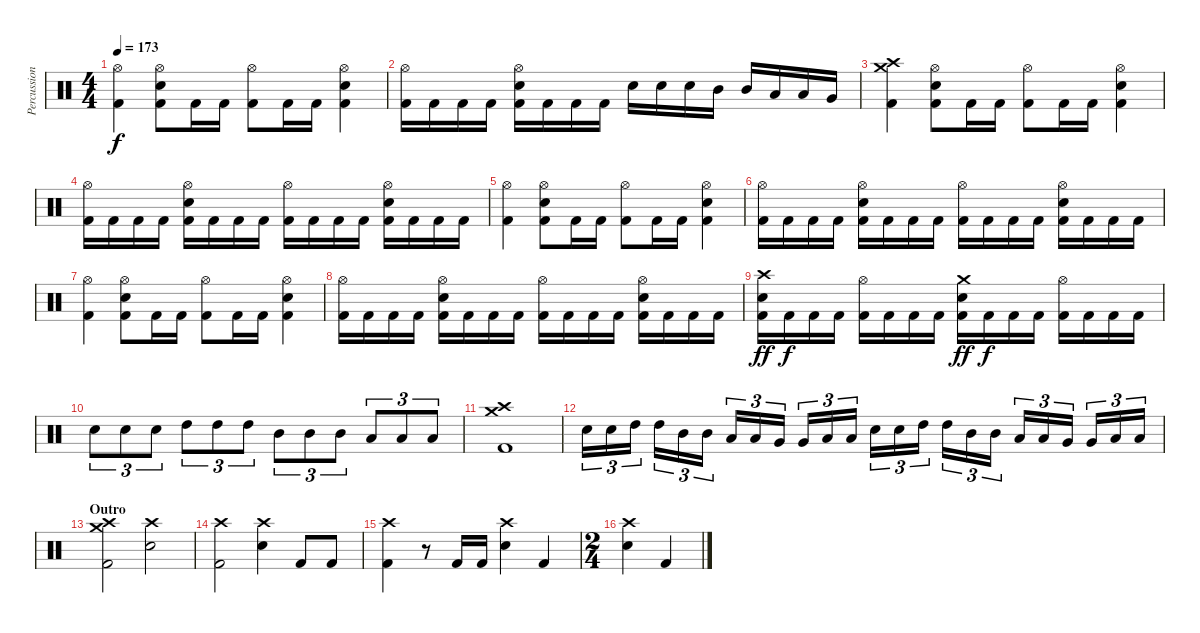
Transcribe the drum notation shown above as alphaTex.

\track ("Percussions" "Percussion") {instrument percussion}
\staff {score}
\articulation defaults
\ts (4 4)
\tempo 173
\clef neutral
\ks c
("Hi-Hat (open)" "Kick (hit) 2").4{dy f} ("Hi-Hat (open)" "Electric Snare (hit)" "Kick (hit) 2").8 "Kick (hit) 2".16 "Kick (hit) 2".16 ("Hi-Hat (open)" "Kick (hit) 2").8 "Kick (hit) 2".16 "Kick (hit) 2".16 ("Hi-Hat (open)" "Electric Snare (hit)" "Kick (hit) 2").4 |
("Hi-Hat (open)" "Kick (hit) 2").16 "Kick (hit) 2".16 "Kick (hit) 2".16 "Kick (hit) 2".16 ("Hi-Hat (open)" "Electric Snare (hit)" "Kick (hit) 2").16 "Kick (hit) 2".16 "Kick (hit) 2".16 "Kick (hit) 2".16 "Electric Snare (hit)".16 "Electric Snare (hit)".16 "Electric Snare (hit)".16 "Mid Tom (hit)".16 "Mid Tom (hit)".16 "Low Tom (hit)".16 "Low Tom (hit)".16 "Very Low Tom (hit)".16 |
("Crash high (hit)" "Crash medium (hit)" "Kick (hit) 2").4 ("Hi-Hat (open)" "Electric Snare (hit)" "Kick (hit) 2").8 "Kick (hit) 2".16 "Kick (hit) 2".16 ("Hi-Hat (open)" "Kick (hit) 2").8 "Kick (hit) 2".16 "Kick (hit) 2".16 ("Hi-Hat (open)" "Electric Snare (hit)" "Kick (hit) 2").4 |
("Hi-Hat (open)" "Kick (hit) 2").16 "Kick (hit) 2".16 "Kick (hit) 2".16 "Kick (hit) 2".16 ("Hi-Hat (open)" "Electric Snare (hit)" "Kick (hit) 2").16 "Kick (hit) 2".16 "Kick (hit) 2".16 "Kick (hit) 2".16 ("Hi-Hat (open)" "Kick (hit) 2").16 "Kick (hit) 2".16 "Kick (hit) 2".16 "Kick (hit) 2".16 ("Hi-Hat (open)" "Electric Snare (hit)" "Kick (hit) 2").16 "Kick (hit) 2".16 "Kick (hit) 2".16 "Kick (hit) 2".16 |
("Hi-Hat (open)" "Kick (hit) 2").4 ("Hi-Hat (open)" "Electric Snare (hit)" "Kick (hit) 2").8 "Kick (hit) 2".16 "Kick (hit) 2".16 ("Hi-Hat (open)" "Kick (hit) 2").8 "Kick (hit) 2".16 "Kick (hit) 2".16 ("Hi-Hat (open)" "Electric Snare (hit)" "Kick (hit) 2").4 |
("Hi-Hat (open)" "Kick (hit) 2").16 "Kick (hit) 2".16 "Kick (hit) 2".16 "Kick (hit) 2".16 ("Hi-Hat (open)" "Electric Snare (hit)" "Kick (hit) 2").16 "Kick (hit) 2".16 "Kick (hit) 2".16 "Kick (hit) 2".16 ("Hi-Hat (open)" "Kick (hit) 2").16 "Kick (hit) 2".16 "Kick (hit) 2".16 "Kick (hit) 2".16 ("Hi-Hat (open)" "Electric Snare (hit)" "Kick (hit) 2").16 "Kick (hit) 2".16 "Kick (hit) 2".16 "Kick (hit) 2".16 |
("Hi-Hat (open)" "Kick (hit) 2").4 ("Hi-Hat (open)" "Electric Snare (hit)" "Kick (hit) 2").8 "Kick (hit) 2".16 "Kick (hit) 2".16 ("Hi-Hat (open)" "Kick (hit) 2").8 "Kick (hit) 2".16 "Kick (hit) 2".16 ("Hi-Hat (open)" "Electric Snare (hit)" "Kick (hit) 2").4 |
("Hi-Hat (open)" "Kick (hit) 2").16 "Kick (hit) 2".16 "Kick (hit) 2".16 "Kick (hit) 2".16 ("Hi-Hat (open)" "Electric Snare (hit)" "Kick (hit) 2").16 "Kick (hit) 2".16 "Kick (hit) 2".16 "Kick (hit) 2".16 ("Hi-Hat (open)" "Kick (hit) 2").16 "Kick (hit) 2".16 "Kick (hit) 2".16 "Kick (hit) 2".16 ("Hi-Hat (open)" "Electric Snare (hit)" "Kick (hit) 2").16 "Kick (hit) 2".16 "Kick (hit) 2".16 "Kick (hit) 2".16 |
("Crash high (hit)" "Electric Snare (hit)" "Kick (hit) 2").16{dy ff} "Kick (hit) 2".16{dy f} "Kick (hit) 2".16 "Kick (hit) 2".16 ("Hi-Hat (open)" "Kick (hit) 2").16 "Kick (hit) 2".16 "Kick (hit) 2".16 "Kick (hit) 2".16 ("Crash medium (hit)" "Electric Snare (hit)" "Kick (hit) 2").16{dy ff} "Kick (hit) 2".16{dy f} "Kick (hit) 2".16 "Kick (hit) 2".16 ("Hi-Hat (open)" "Kick (hit) 2").16 "Kick (hit) 2".16 "Kick (hit) 2".16 "Kick (hit) 2".16 |
"Electric Snare (hit)".8{tu (3 2)} "Electric Snare (hit)".8{tu (3 2)} "Electric Snare (hit)".8{tu (3 2)} "High Tom (hit)".8{tu (3 2)} "High Tom (hit)".8{tu (3 2)} "High Tom (hit)".8{tu (3 2)} "Mid Tom (hit)".8{tu (3 2)} "Mid Tom (hit)".8{tu (3 2)} "Mid Tom (hit)".8{tu (3 2)} "Low Tom (hit)".8{tu (3 2)} "Low Tom (hit)".8{tu (3 2)} "Low Tom (hit)".8{tu (3 2)} |
("Crash high (hit)" "Crash medium (hit)" "Kick (hit) 2").1 |
"Electric Snare (hit)".16{tu (3 2)} "Electric Snare (hit)".16{tu (3 2)} "High Tom (hit)".16{tu (3 2)} "High Tom (hit)".16{tu (3 2)} "Mid Tom (hit)".16{tu (3 2)} "Mid Tom (hit)".16{tu (3 2)} "Low Tom (hit)".16{tu (3 2)} "Low Tom (hit)".16{tu (3 2)} "Very Low Tom (hit)".16{tu (3 2)} "Very Low Tom (hit)".16{tu (3 2)} "Low Floor Tom (hit)".16{tu (3 2)} "Low Floor Tom (hit)".16{tu (3 2)} "Electric Snare (hit)".16{tu (3 2)} "Electric Snare (hit)".16{tu (3 2)} "High Tom (hit)".16{tu (3 2)} "High Tom (hit)".16{tu (3 2)} "Mid Tom (hit)".16{tu (3 2)} "Mid Tom (hit)".16{tu (3 2)} "Low Tom (hit)".16{tu (3 2)} "Low Tom (hit)".16{tu (3 2)} "Very Low Tom (hit)".16{tu (3 2)} "Very Low Tom (hit)".16{tu (3 2)} "Low Floor Tom (hit)".16{tu (3 2)} "Low Floor Tom (hit)".16{tu (3 2)} |
\section ("" "Outro")
("Crash medium (hit)" "Crash high (hit)" "Kick (hit) 2").2 ("Crash high (hit)" "Electric Snare (hit)").2 |
("Crash high (hit)" "Kick (hit) 2").2 ("Crash high (hit)" "Electric Snare (hit)").4 "Kick (hit) 2".8 "Kick (hit) 2".8 |
("Crash high (hit)" "Kick (hit) 2").4 r.8 "Kick (hit) 2".16 "Kick (hit) 2".16 ("Crash high (hit)" "Electric Snare (hit)").4 "Kick (hit) 2".4 |
\ts (2 4)
("Crash high (hit)" "Electric Snare (hit)").4 "Kick (hit) 2".4
